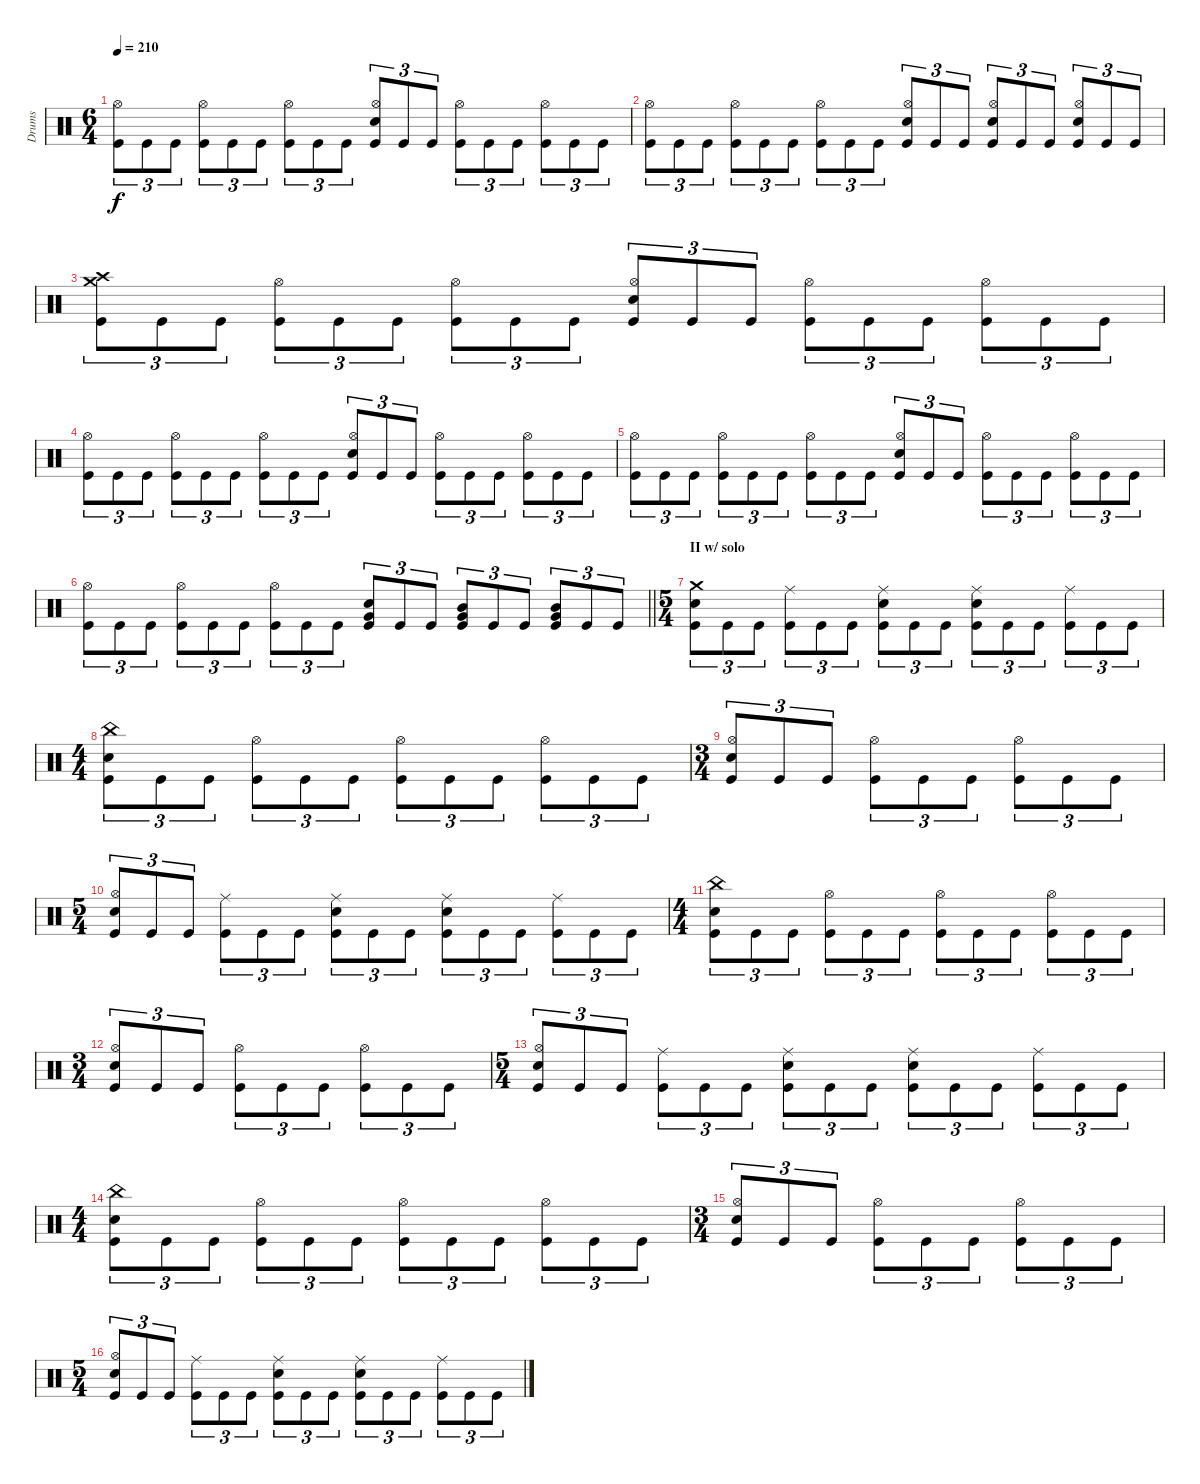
\track ("Drums" "Drums") {instrument percussion}
\staff {score}
\articulation defaults
\ts (6 4)
\tempo 210
\clef neutral
\ks c
("Kick (hit)" "Hi-Hat (open)").8{tu (3 2) dy f} "Kick (hit)".8{tu (3 2)} "Kick (hit)".8{tu (3 2)} ("Kick (hit)" "Hi-Hat (open)").8{tu (3 2)} "Kick (hit)".8{tu (3 2)} "Kick (hit)".8{tu (3 2)} ("Kick (hit)" "Hi-Hat (open)").8{tu (3 2)} "Kick (hit)".8{tu (3 2)} "Kick (hit)".8{tu (3 2)} ("Kick (hit)" "Electric Snare (hit)" "Hi-Hat (open)").8{tu (3 2)} "Kick (hit)".8{tu (3 2)} "Kick (hit)".8{tu (3 2)} ("Kick (hit)" "Hi-Hat (open)").8{tu (3 2)} "Kick (hit)".8{tu (3 2)} "Kick (hit)".8{tu (3 2)} ("Kick (hit)" "Hi-Hat (open)").8{tu (3 2)} "Kick (hit)".8{tu (3 2)} "Kick (hit)".8{tu (3 2)} |
("Kick (hit)" "Hi-Hat (open)").8{tu (3 2)} "Kick (hit)".8{tu (3 2)} "Kick (hit)".8{tu (3 2)} ("Kick (hit)" "Hi-Hat (open)").8{tu (3 2)} "Kick (hit)".8{tu (3 2)} "Kick (hit)".8{tu (3 2)} ("Kick (hit)" "Hi-Hat (open)").8{tu (3 2)} "Kick (hit)".8{tu (3 2)} "Kick (hit)".8{tu (3 2)} ("Kick (hit)" "Electric Snare (hit)" "Hi-Hat (open)").8{tu (3 2)} "Kick (hit)".8{tu (3 2)} "Kick (hit)".8{tu (3 2)} ("Kick (hit)" "Electric Snare (hit)" "Hi-Hat (open)").8{tu (3 2)} "Kick (hit)".8{tu (3 2)} "Kick (hit)".8{tu (3 2)} ("Kick (hit)" "Electric Snare (hit)" "Hi-Hat (open)").8{tu (3 2)} "Kick (hit)".8{tu (3 2)} "Kick (hit)".8{tu (3 2)} |
("Kick (hit)" "Crash high (hit)" "Crash medium (hit)").8{tu (3 2)} "Kick (hit)".8{tu (3 2)} "Kick (hit)".8{tu (3 2)} ("Kick (hit)" "Hi-Hat (open)").8{tu (3 2)} "Kick (hit)".8{tu (3 2)} "Kick (hit)".8{tu (3 2)} ("Kick (hit)" "Hi-Hat (open)").8{tu (3 2)} "Kick (hit)".8{tu (3 2)} "Kick (hit)".8{tu (3 2)} ("Kick (hit)" "Electric Snare (hit)" "Hi-Hat (open)").8{tu (3 2)} "Kick (hit)".8{tu (3 2)} "Kick (hit)".8{tu (3 2)} ("Kick (hit)" "Hi-Hat (open)").8{tu (3 2)} "Kick (hit)".8{tu (3 2)} "Kick (hit)".8{tu (3 2)} ("Kick (hit)" "Hi-Hat (open)").8{tu (3 2)} "Kick (hit)".8{tu (3 2)} "Kick (hit)".8{tu (3 2)} |
("Kick (hit)" "Hi-Hat (open)").8{tu (3 2)} "Kick (hit)".8{tu (3 2)} "Kick (hit)".8{tu (3 2)} ("Kick (hit)" "Hi-Hat (open)").8{tu (3 2)} "Kick (hit)".8{tu (3 2)} "Kick (hit)".8{tu (3 2)} ("Kick (hit)" "Hi-Hat (open)").8{tu (3 2)} "Kick (hit)".8{tu (3 2)} "Kick (hit)".8{tu (3 2)} ("Kick (hit)" "Electric Snare (hit)" "Hi-Hat (open)").8{tu (3 2)} "Kick (hit)".8{tu (3 2)} "Kick (hit)".8{tu (3 2)} ("Kick (hit)" "Hi-Hat (open)").8{tu (3 2)} "Kick (hit)".8{tu (3 2)} "Kick (hit)".8{tu (3 2)} ("Kick (hit)" "Hi-Hat (open)").8{tu (3 2)} "Kick (hit)".8{tu (3 2)} "Kick (hit)".8{tu (3 2)} |
("Kick (hit)" "Hi-Hat (open)").8{tu (3 2)} "Kick (hit)".8{tu (3 2)} "Kick (hit)".8{tu (3 2)} ("Kick (hit)" "Hi-Hat (open)").8{tu (3 2)} "Kick (hit)".8{tu (3 2)} "Kick (hit)".8{tu (3 2)} ("Kick (hit)" "Hi-Hat (open)").8{tu (3 2)} "Kick (hit)".8{tu (3 2)} "Kick (hit)".8{tu (3 2)} ("Kick (hit)" "Electric Snare (hit)" "Hi-Hat (open)").8{tu (3 2)} "Kick (hit)".8{tu (3 2)} "Kick (hit)".8{tu (3 2)} ("Kick (hit)" "Hi-Hat (open)").8{tu (3 2)} "Kick (hit)".8{tu (3 2)} "Kick (hit)".8{tu (3 2)} ("Kick (hit)" "Hi-Hat (open)").8{tu (3 2)} "Kick (hit)".8{tu (3 2)} "Kick (hit)".8{tu (3 2)} |
\barLineRight lightlight
("Kick (hit)" "Hi-Hat (open)").8{tu (3 2)} "Kick (hit)".8{tu (3 2)} "Kick (hit)".8{tu (3 2)} ("Kick (hit)" "Hi-Hat (open)").8{tu (3 2)} "Kick (hit)".8{tu (3 2)} "Kick (hit)".8{tu (3 2)} ("Kick (hit)" "Hi-Hat (open)").8{tu (3 2)} "Kick (hit)".8{tu (3 2)} "Kick (hit)".8{tu (3 2)} ("Kick (hit)" "Electric Snare (hit)" "Very Low Tom (hit)").8{tu (3 2)} "Kick (hit)".8{tu (3 2)} "Kick (hit)".8{tu (3 2)} ("Kick (hit)" "Very Low Tom (hit)" "Mid Tom (hit)").8{tu (3 2)} "Kick (hit)".8{tu (3 2)} "Kick (hit)".8{tu (3 2)} ("Kick (hit)" "Very Low Tom (hit)" "Mid Tom (hit)").8{tu (3 2)} "Kick (hit)".8{tu (3 2)} "Kick (hit)".8{tu (3 2)} |
\ts (5 4)
\section ("" "II w/ solo")
("Kick (hit)" "Electric Snare (hit)" "Crash medium (hit)").8{tu (3 2)} "Kick (hit)".8{tu (3 2)} "Kick (hit)".8{tu (3 2)} ("Kick (hit)" "Ride (middle)").8{tu (3 2)} "Kick (hit)".8{tu (3 2)} "Kick (hit)".8{tu (3 2)} ("Kick (hit)" "Electric Snare (hit)" "Ride (middle)").8{tu (3 2)} "Kick (hit)".8{tu (3 2)} "Kick (hit)".8{tu (3 2)} ("Kick (hit)" "Electric Snare (hit)" "Ride (middle)").8{tu (3 2)} "Kick (hit)".8{tu (3 2)} "Kick (hit)".8{tu (3 2)} ("Kick (hit)" "Ride (middle)").8{tu (3 2)} "Kick (hit)".8{tu (3 2)} "Kick (hit)".8{tu (3 2)} |
\ts (4 4)
("Kick (hit)" "Electric Snare (hit)" "China (hit)").8{tu (3 2)} "Kick (hit)".8{tu (3 2)} "Kick (hit)".8{tu (3 2)} ("Kick (hit)" "Hi-Hat (open)").8{tu (3 2)} "Kick (hit)".8{tu (3 2)} "Kick (hit)".8{tu (3 2)} ("Kick (hit)" "Hi-Hat (open)").8{tu (3 2)} "Kick (hit)".8{tu (3 2)} "Kick (hit)".8{tu (3 2)} ("Kick (hit)" "Hi-Hat (open)").8{tu (3 2)} "Kick (hit)".8{tu (3 2)} "Kick (hit)".8{tu (3 2)} |
\ts (3 4)
("Kick (hit)" "Electric Snare (hit)" "Hi-Hat (open)").8{tu (3 2)} "Kick (hit)".8{tu (3 2)} "Kick (hit)".8{tu (3 2)} ("Kick (hit)" "Hi-Hat (open)").8{tu (3 2)} "Kick (hit)".8{tu (3 2)} "Kick (hit)".8{tu (3 2)} ("Kick (hit)" "Hi-Hat (open)").8{tu (3 2)} "Kick (hit)".8{tu (3 2)} "Kick (hit)".8{tu (3 2)} |
\ts (5 4)
("Kick (hit)" "Electric Snare (hit)" "Hi-Hat (open)").8{tu (3 2)} "Kick (hit)".8{tu (3 2)} "Kick (hit)".8{tu (3 2)} ("Kick (hit)" "Ride (middle)").8{tu (3 2)} "Kick (hit)".8{tu (3 2)} "Kick (hit)".8{tu (3 2)} ("Kick (hit)" "Electric Snare (hit)" "Ride (middle)").8{tu (3 2)} "Kick (hit)".8{tu (3 2)} "Kick (hit)".8{tu (3 2)} ("Kick (hit)" "Electric Snare (hit)" "Ride (middle)").8{tu (3 2)} "Kick (hit)".8{tu (3 2)} "Kick (hit)".8{tu (3 2)} ("Kick (hit)" "Ride (middle)").8{tu (3 2)} "Kick (hit)".8{tu (3 2)} "Kick (hit)".8{tu (3 2)} |
\ts (4 4)
("Kick (hit)" "Electric Snare (hit)" "China (hit)").8{tu (3 2)} "Kick (hit)".8{tu (3 2)} "Kick (hit)".8{tu (3 2)} ("Kick (hit)" "Hi-Hat (open)").8{tu (3 2)} "Kick (hit)".8{tu (3 2)} "Kick (hit)".8{tu (3 2)} ("Kick (hit)" "Hi-Hat (open)").8{tu (3 2)} "Kick (hit)".8{tu (3 2)} "Kick (hit)".8{tu (3 2)} ("Kick (hit)" "Hi-Hat (open)").8{tu (3 2)} "Kick (hit)".8{tu (3 2)} "Kick (hit)".8{tu (3 2)} |
\ts (3 4)
("Kick (hit)" "Electric Snare (hit)" "Hi-Hat (open)").8{tu (3 2)} "Kick (hit)".8{tu (3 2)} "Kick (hit)".8{tu (3 2)} ("Kick (hit)" "Hi-Hat (open)").8{tu (3 2)} "Kick (hit)".8{tu (3 2)} "Kick (hit)".8{tu (3 2)} ("Kick (hit)" "Hi-Hat (open)").8{tu (3 2)} "Kick (hit)".8{tu (3 2)} "Kick (hit)".8{tu (3 2)} |
\ts (5 4)
("Kick (hit)" "Electric Snare (hit)" "Hi-Hat (open)").8{tu (3 2)} "Kick (hit)".8{tu (3 2)} "Kick (hit)".8{tu (3 2)} ("Kick (hit)" "Ride (middle)").8{tu (3 2)} "Kick (hit)".8{tu (3 2)} "Kick (hit)".8{tu (3 2)} ("Kick (hit)" "Electric Snare (hit)" "Ride (middle)").8{tu (3 2)} "Kick (hit)".8{tu (3 2)} "Kick (hit)".8{tu (3 2)} ("Kick (hit)" "Electric Snare (hit)" "Ride (middle)").8{tu (3 2)} "Kick (hit)".8{tu (3 2)} "Kick (hit)".8{tu (3 2)} ("Kick (hit)" "Ride (middle)").8{tu (3 2)} "Kick (hit)".8{tu (3 2)} "Kick (hit)".8{tu (3 2)} |
\ts (4 4)
("Kick (hit)" "Electric Snare (hit)" "China (hit)").8{tu (3 2)} "Kick (hit)".8{tu (3 2)} "Kick (hit)".8{tu (3 2)} ("Kick (hit)" "Hi-Hat (open)").8{tu (3 2)} "Kick (hit)".8{tu (3 2)} "Kick (hit)".8{tu (3 2)} ("Kick (hit)" "Hi-Hat (open)").8{tu (3 2)} "Kick (hit)".8{tu (3 2)} "Kick (hit)".8{tu (3 2)} ("Kick (hit)" "Hi-Hat (open)").8{tu (3 2)} "Kick (hit)".8{tu (3 2)} "Kick (hit)".8{tu (3 2)} |
\ts (3 4)
("Kick (hit)" "Electric Snare (hit)" "Hi-Hat (open)").8{tu (3 2)} "Kick (hit)".8{tu (3 2)} "Kick (hit)".8{tu (3 2)} ("Kick (hit)" "Hi-Hat (open)").8{tu (3 2)} "Kick (hit)".8{tu (3 2)} "Kick (hit)".8{tu (3 2)} ("Kick (hit)" "Hi-Hat (open)").8{tu (3 2)} "Kick (hit)".8{tu (3 2)} "Kick (hit)".8{tu (3 2)} |
\ts (5 4)
("Kick (hit)" "Electric Snare (hit)" "Hi-Hat (open)").8{tu (3 2)} "Kick (hit)".8{tu (3 2)} "Kick (hit)".8{tu (3 2)} ("Kick (hit)" "Ride (middle)").8{tu (3 2)} "Kick (hit)".8{tu (3 2)} "Kick (hit)".8{tu (3 2)} ("Kick (hit)" "Electric Snare (hit)" "Ride (middle)").8{tu (3 2)} "Kick (hit)".8{tu (3 2)} "Kick (hit)".8{tu (3 2)} ("Kick (hit)" "Electric Snare (hit)" "Ride (middle)").8{tu (3 2)} "Kick (hit)".8{tu (3 2)} "Kick (hit)".8{tu (3 2)} ("Kick (hit)" "Ride (middle)").8{tu (3 2)} "Kick (hit)".8{tu (3 2)} "Kick (hit)".8{tu (3 2)}
